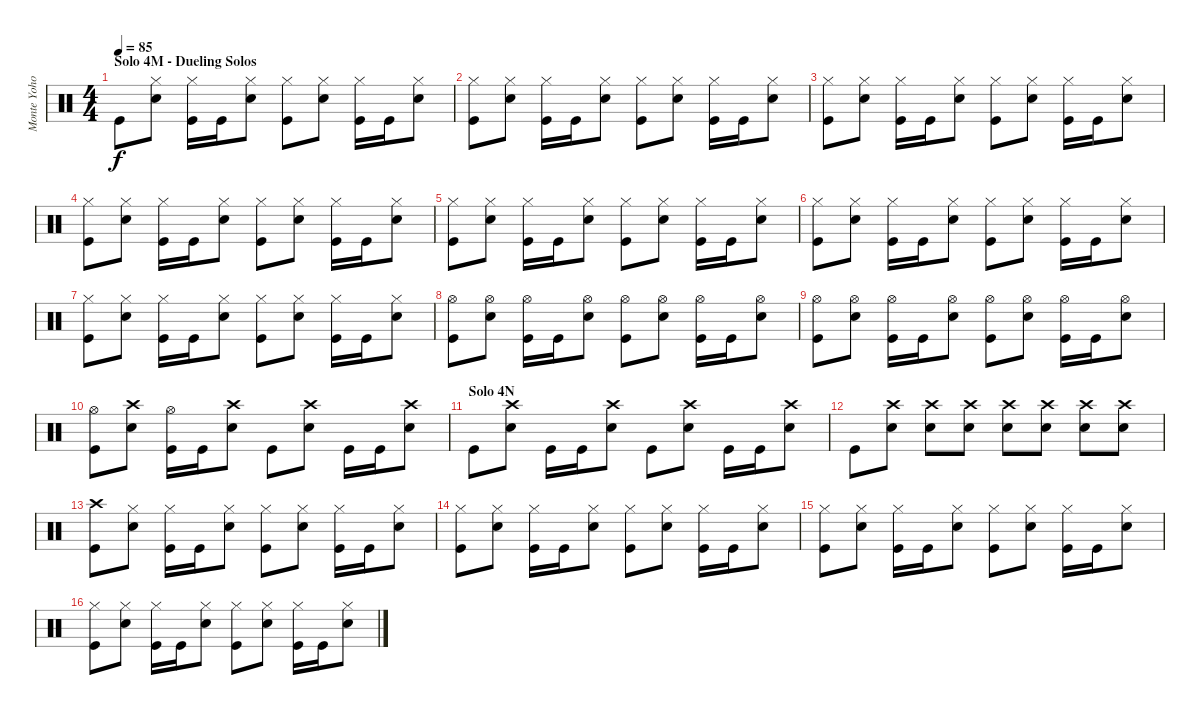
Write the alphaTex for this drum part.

\track ("Monte Yoho - Drums" "Monte Yoho") {instrument percussion}
\staff {score}
\articulation defaults
\ts (4 4)
\section ("" "Solo 4M - Dueling Solos")
\tempo 85
\clef neutral
\ks c "Kick (hit)".8{dy f}
("Hi-Hat (closed)" "Snare (hit) 2").8 ("Hi-Hat (closed)" "Kick (hit)").16 "Kick (hit)".16 ("Hi-Hat (closed)" "Snare (hit) 2").8 ("Hi-Hat (closed)" "Kick (hit)").8 ("Hi-Hat (closed)" "Snare (hit) 2").8 ("Hi-Hat (closed)" "Kick (hit)").16 "Kick (hit)".16 ("Hi-Hat (closed)" "Snare (hit) 2").8 |
("Hi-Hat (closed)" "Kick (hit)").8 ("Hi-Hat (closed)" "Snare (hit) 2").8 ("Hi-Hat (closed)" "Kick (hit)").16 "Kick (hit)".16 ("Hi-Hat (closed)" "Snare (hit) 2").8 ("Hi-Hat (closed)" "Kick (hit)").8 ("Hi-Hat (closed)" "Snare (hit) 2").8 ("Hi-Hat (closed)" "Kick (hit)").16 "Kick (hit)".16 ("Hi-Hat (closed)" "Snare (hit) 2").8 |
("Hi-Hat (closed)" "Kick (hit)").8 ("Hi-Hat (closed)" "Snare (hit) 2").8 ("Hi-Hat (closed)" "Kick (hit)").16 "Kick (hit)".16 ("Hi-Hat (closed)" "Snare (hit) 2").8 ("Hi-Hat (closed)" "Kick (hit)").8 ("Hi-Hat (closed)" "Snare (hit) 2").8 ("Hi-Hat (closed)" "Kick (hit)").16 "Kick (hit)".16 ("Hi-Hat (closed)" "Snare (hit) 2").8 |
("Hi-Hat (closed)" "Kick (hit)").8 ("Hi-Hat (closed)" "Snare (hit) 2").8 ("Hi-Hat (closed)" "Kick (hit)").16 "Kick (hit)".16 ("Hi-Hat (closed)" "Snare (hit) 2").8 ("Hi-Hat (closed)" "Kick (hit)").8 ("Hi-Hat (closed)" "Snare (hit) 2").8 ("Hi-Hat (closed)" "Kick (hit)").16 "Kick (hit)".16 ("Hi-Hat (closed)" "Snare (hit) 2").8 |
("Hi-Hat (closed)" "Kick (hit)").8 ("Hi-Hat (closed)" "Snare (hit) 2").8 ("Hi-Hat (closed)" "Kick (hit)").16 "Kick (hit)".16 ("Hi-Hat (closed)" "Snare (hit) 2").8 ("Hi-Hat (closed)" "Kick (hit)").8 ("Hi-Hat (closed)" "Snare (hit) 2").8 ("Hi-Hat (closed)" "Kick (hit)").16 "Kick (hit)".16 ("Hi-Hat (closed)" "Snare (hit) 2").8 |
("Hi-Hat (closed)" "Kick (hit)").8 ("Hi-Hat (closed)" "Snare (hit) 2").8 ("Hi-Hat (closed)" "Kick (hit)").16 "Kick (hit)".16 ("Hi-Hat (closed)" "Snare (hit) 2").8 ("Hi-Hat (closed)" "Kick (hit)").8 ("Hi-Hat (closed)" "Snare (hit) 2").8 ("Hi-Hat (closed)" "Kick (hit)").16 "Kick (hit)".16 ("Hi-Hat (closed)" "Snare (hit) 2").8 |
("Hi-Hat (closed)" "Kick (hit)").8 ("Hi-Hat (closed)" "Snare (hit) 2").8 ("Hi-Hat (closed)" "Kick (hit)").16 "Kick (hit)".16 ("Hi-Hat (closed)" "Snare (hit) 2").8 ("Hi-Hat (closed)" "Kick (hit)").8 ("Hi-Hat (closed)" "Snare (hit) 2").8 ("Hi-Hat (closed)" "Kick (hit)").16 "Kick (hit)".16 ("Hi-Hat (closed)" "Snare (hit) 2").8 |
("Hi-Hat (open)" "Kick (hit)").8 ("Hi-Hat (open)" "Snare (hit) 2").8 ("Hi-Hat (open)" "Kick (hit)").16 "Kick (hit)".16 ("Hi-Hat (open)" "Snare (hit) 2").8 ("Hi-Hat (open)" "Kick (hit)").8 ("Hi-Hat (open)" "Snare (hit) 2").8 ("Hi-Hat (open)" "Kick (hit)").16 "Kick (hit)".16 ("Hi-Hat (open)" "Snare (hit) 2").8 |
("Hi-Hat (open)" "Kick (hit)").8 ("Hi-Hat (open)" "Snare (hit) 2").8 ("Hi-Hat (open)" "Kick (hit)").16 "Kick (hit)".16 ("Hi-Hat (open)" "Snare (hit) 2").8 ("Hi-Hat (open)" "Kick (hit)").8 ("Hi-Hat (open)" "Snare (hit) 2").8 ("Hi-Hat (open)" "Kick (hit)").16 "Kick (hit)".16 ("Hi-Hat (open)" "Snare (hit) 2").8 |
("Hi-Hat (open)" "Kick (hit)").8 ("Crash high (hit)" "Snare (hit) 2").8 ("Hi-Hat (open)" "Kick (hit)").16 "Kick (hit)".16 ("Crash high (hit)" "Snare (hit) 2").8 "Kick (hit)".8 ("Crash high (hit)" "Snare (hit) 2").8 "Kick (hit)".16 "Kick (hit)".16 ("Crash high (hit)" "Snare (hit) 2").8 |
\section ("" "Solo 4N")
"Kick (hit)".8 ("Crash high (hit)" "Snare (hit) 2").8 "Kick (hit)".16 "Kick (hit)".16 ("Crash high (hit)" "Snare (hit) 2").8 "Kick (hit)".8 ("Crash high (hit)" "Snare (hit) 2").8 "Kick (hit)".16 "Kick (hit)".16 ("Crash high (hit)" "Snare (hit) 2").8 |
"Kick (hit)".8 ("Crash high (hit)" "Snare (hit) 2").8 ("Crash high (hit)" "Snare (hit) 2").8 ("Crash high (hit)" "Snare (hit) 2").8 ("Crash high (hit)" "Snare (hit) 2").8 ("Crash high (hit)" "Snare (hit) 2").8 ("Crash high (hit)" "Snare (hit) 2").8 ("Crash high (hit)" "Snare (hit) 2").8 |
("Crash high (hit)" "Kick (hit)").8 ("Hi-Hat (closed)" "Snare (hit) 2").8 ("Hi-Hat (closed)" "Kick (hit)").16 "Kick (hit)".16 ("Hi-Hat (closed)" "Snare (hit) 2").8 ("Hi-Hat (closed)" "Kick (hit)").8 ("Hi-Hat (closed)" "Snare (hit) 2").8 ("Hi-Hat (closed)" "Kick (hit)").16 "Kick (hit)".16 ("Hi-Hat (closed)" "Snare (hit) 2").8 |
("Hi-Hat (closed)" "Kick (hit)").8 ("Hi-Hat (closed)" "Snare (hit) 2").8 ("Hi-Hat (closed)" "Kick (hit)").16 "Kick (hit)".16 ("Hi-Hat (closed)" "Snare (hit) 2").8 ("Hi-Hat (closed)" "Kick (hit)").8 ("Hi-Hat (closed)" "Snare (hit) 2").8 ("Hi-Hat (closed)" "Kick (hit)").16 "Kick (hit)".16 ("Hi-Hat (closed)" "Snare (hit) 2").8 |
("Hi-Hat (closed)" "Kick (hit)").8 ("Hi-Hat (closed)" "Snare (hit) 2").8 ("Hi-Hat (closed)" "Kick (hit)").16 "Kick (hit)".16 ("Hi-Hat (closed)" "Snare (hit) 2").8 ("Hi-Hat (closed)" "Kick (hit)").8 ("Hi-Hat (closed)" "Snare (hit) 2").8 ("Hi-Hat (closed)" "Kick (hit)").16 "Kick (hit)".16 ("Hi-Hat (closed)" "Snare (hit) 2").8 |
("Hi-Hat (closed)" "Kick (hit)").8 ("Hi-Hat (closed)" "Snare (hit) 2").8 ("Hi-Hat (closed)" "Kick (hit)").16 "Kick (hit)".16 ("Hi-Hat (closed)" "Snare (hit) 2").8 ("Hi-Hat (closed)" "Kick (hit)").8 ("Hi-Hat (closed)" "Snare (hit) 2").8 ("Hi-Hat (closed)" "Kick (hit)").16 "Kick (hit)".16 ("Hi-Hat (closed)" "Snare (hit) 2").8
